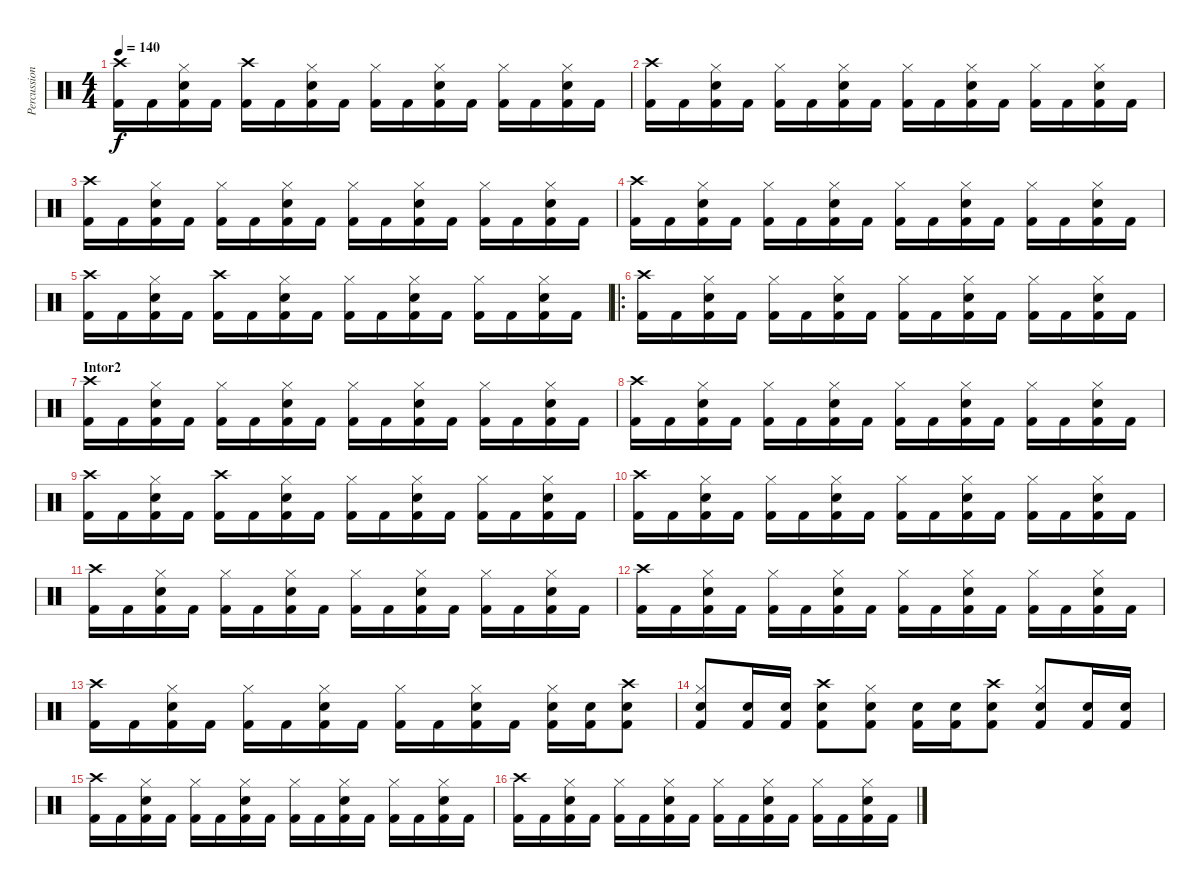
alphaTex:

\track ("Percussion" "Percussion") {instrument percussion}
\staff {score}
\articulation defaults
\ts (4 4)
\tempo 140
\clef neutral
\ks aminor
("Crash high (hit)" "Kick (hit) 2").16{dy f} "Kick (hit) 2".16 ("Hi-Hat (closed)" "Snare (hit) 2" "Kick (hit) 2").16 "Kick (hit) 2".16 ("Crash high (hit)" "Kick (hit) 2").16 "Kick (hit) 2".16 ("Hi-Hat (closed)" "Snare (hit) 2" "Kick (hit) 2").16 "Kick (hit) 2".16 ("Hi-Hat (closed)" "Kick (hit) 2").16 "Kick (hit) 2".16 ("Hi-Hat (closed)" "Snare (hit) 2" "Kick (hit) 2").16 "Kick (hit) 2".16 ("Hi-Hat (closed)" "Kick (hit) 2").16 "Kick (hit) 2".16 ("Hi-Hat (closed)" "Snare (hit) 2" "Kick (hit) 2").16 "Kick (hit) 2".16 |
("Crash high (hit)" "Kick (hit) 2").16 "Kick (hit) 2".16 ("Hi-Hat (closed)" "Snare (hit) 2" "Kick (hit) 2").16 "Kick (hit) 2".16 ("Hi-Hat (closed)" "Kick (hit) 2").16 "Kick (hit) 2".16 ("Hi-Hat (closed)" "Snare (hit) 2" "Kick (hit) 2").16 "Kick (hit) 2".16 ("Hi-Hat (closed)" "Kick (hit) 2").16 "Kick (hit) 2".16 ("Hi-Hat (closed)" "Snare (hit) 2" "Kick (hit) 2").16 "Kick (hit) 2".16 ("Hi-Hat (closed)" "Kick (hit) 2").16 "Kick (hit) 2".16 ("Hi-Hat (closed)" "Snare (hit) 2" "Kick (hit) 2").16 "Kick (hit) 2".16 |
("Crash high (hit)" "Kick (hit) 2").16 "Kick (hit) 2".16 ("Hi-Hat (closed)" "Snare (hit) 2" "Kick (hit) 2").16 "Kick (hit) 2".16 ("Hi-Hat (closed)" "Kick (hit) 2").16 "Kick (hit) 2".16 ("Hi-Hat (closed)" "Snare (hit) 2" "Kick (hit) 2").16 "Kick (hit) 2".16 ("Hi-Hat (closed)" "Kick (hit) 2").16 "Kick (hit) 2".16 ("Hi-Hat (closed)" "Snare (hit) 2" "Kick (hit) 2").16 "Kick (hit) 2".16 ("Hi-Hat (closed)" "Kick (hit) 2").16 "Kick (hit) 2".16 ("Hi-Hat (closed)" "Snare (hit) 2" "Kick (hit) 2").16 "Kick (hit) 2".16 |
("Crash high (hit)" "Kick (hit) 2").16 "Kick (hit) 2".16 ("Hi-Hat (closed)" "Snare (hit) 2" "Kick (hit) 2").16 "Kick (hit) 2".16 ("Hi-Hat (closed)" "Kick (hit) 2").16 "Kick (hit) 2".16 ("Hi-Hat (closed)" "Snare (hit) 2" "Kick (hit) 2").16 "Kick (hit) 2".16 ("Hi-Hat (closed)" "Kick (hit) 2").16 "Kick (hit) 2".16 ("Hi-Hat (closed)" "Snare (hit) 2" "Kick (hit) 2").16 "Kick (hit) 2".16 ("Hi-Hat (closed)" "Kick (hit) 2").16 "Kick (hit) 2".16 ("Hi-Hat (closed)" "Snare (hit) 2" "Kick (hit) 2").16 "Kick (hit) 2".16 |
("Crash high (hit)" "Kick (hit) 2").16 "Kick (hit) 2".16 ("Hi-Hat (closed)" "Snare (hit) 2" "Kick (hit) 2").16 "Kick (hit) 2".16 ("Crash high (hit)" "Kick (hit) 2").16 "Kick (hit) 2".16 ("Hi-Hat (closed)" "Snare (hit) 2" "Kick (hit) 2").16 "Kick (hit) 2".16 ("Hi-Hat (closed)" "Kick (hit) 2").16 "Kick (hit) 2".16 ("Hi-Hat (closed)" "Snare (hit) 2" "Kick (hit) 2").16 "Kick (hit) 2".16 ("Hi-Hat (closed)" "Kick (hit) 2").16 "Kick (hit) 2".16 ("Hi-Hat (closed)" "Snare (hit) 2" "Kick (hit) 2").16 "Kick (hit) 2".16 |
\ro
("Crash high (hit)" "Kick (hit) 2").16 "Kick (hit) 2".16 ("Hi-Hat (closed)" "Snare (hit) 2" "Kick (hit) 2").16 "Kick (hit) 2".16 ("Hi-Hat (closed)" "Kick (hit) 2").16 "Kick (hit) 2".16 ("Hi-Hat (closed)" "Snare (hit) 2" "Kick (hit) 2").16 "Kick (hit) 2".16 ("Hi-Hat (closed)" "Kick (hit) 2").16 "Kick (hit) 2".16 ("Hi-Hat (closed)" "Snare (hit) 2" "Kick (hit) 2").16 "Kick (hit) 2".16 ("Hi-Hat (closed)" "Kick (hit) 2").16 "Kick (hit) 2".16 ("Hi-Hat (closed)" "Snare (hit) 2" "Kick (hit) 2").16 "Kick (hit) 2".16 |
\section ("" "Intor2")
("Crash high (hit)" "Kick (hit) 2").16 "Kick (hit) 2".16 ("Hi-Hat (closed)" "Snare (hit) 2" "Kick (hit) 2").16 "Kick (hit) 2".16 ("Hi-Hat (closed)" "Kick (hit) 2").16 "Kick (hit) 2".16 ("Hi-Hat (closed)" "Snare (hit) 2" "Kick (hit) 2").16 "Kick (hit) 2".16 ("Hi-Hat (closed)" "Kick (hit) 2").16 "Kick (hit) 2".16 ("Hi-Hat (closed)" "Snare (hit) 2" "Kick (hit) 2").16 "Kick (hit) 2".16 ("Hi-Hat (closed)" "Kick (hit) 2").16 "Kick (hit) 2".16 ("Hi-Hat (closed)" "Snare (hit) 2" "Kick (hit) 2").16 "Kick (hit) 2".16 |
("Crash high (hit)" "Kick (hit) 2").16 "Kick (hit) 2".16 ("Hi-Hat (closed)" "Snare (hit) 2" "Kick (hit) 2").16 "Kick (hit) 2".16 ("Hi-Hat (closed)" "Kick (hit) 2").16 "Kick (hit) 2".16 ("Hi-Hat (closed)" "Snare (hit) 2" "Kick (hit) 2").16 "Kick (hit) 2".16 ("Hi-Hat (closed)" "Kick (hit) 2").16 "Kick (hit) 2".16 ("Hi-Hat (closed)" "Snare (hit) 2" "Kick (hit) 2").16 "Kick (hit) 2".16 ("Hi-Hat (closed)" "Kick (hit) 2").16 "Kick (hit) 2".16 ("Hi-Hat (closed)" "Snare (hit) 2" "Kick (hit) 2").16 "Kick (hit) 2".16 |
("Crash high (hit)" "Kick (hit) 2").16 "Kick (hit) 2".16 ("Hi-Hat (closed)" "Snare (hit) 2" "Kick (hit) 2").16 "Kick (hit) 2".16 ("Crash high (hit)" "Kick (hit) 2").16 "Kick (hit) 2".16 ("Hi-Hat (closed)" "Snare (hit) 2" "Kick (hit) 2").16 "Kick (hit) 2".16 ("Hi-Hat (closed)" "Kick (hit) 2").16 "Kick (hit) 2".16 ("Hi-Hat (closed)" "Snare (hit) 2" "Kick (hit) 2").16 "Kick (hit) 2".16 ("Hi-Hat (closed)" "Kick (hit) 2").16 "Kick (hit) 2".16 ("Hi-Hat (closed)" "Snare (hit) 2" "Kick (hit) 2").16 "Kick (hit) 2".16 |
("Crash high (hit)" "Kick (hit) 2").16 "Kick (hit) 2".16 ("Hi-Hat (closed)" "Snare (hit) 2" "Kick (hit) 2").16 "Kick (hit) 2".16 ("Hi-Hat (closed)" "Kick (hit) 2").16 "Kick (hit) 2".16 ("Hi-Hat (closed)" "Snare (hit) 2" "Kick (hit) 2").16 "Kick (hit) 2".16 ("Hi-Hat (closed)" "Kick (hit) 2").16 "Kick (hit) 2".16 ("Hi-Hat (closed)" "Snare (hit) 2" "Kick (hit) 2").16 "Kick (hit) 2".16 ("Hi-Hat (closed)" "Kick (hit) 2").16 "Kick (hit) 2".16 ("Hi-Hat (closed)" "Snare (hit) 2" "Kick (hit) 2").16 "Kick (hit) 2".16 |
("Crash high (hit)" "Kick (hit) 2").16 "Kick (hit) 2".16 ("Hi-Hat (closed)" "Snare (hit) 2" "Kick (hit) 2").16 "Kick (hit) 2".16 ("Hi-Hat (closed)" "Kick (hit) 2").16 "Kick (hit) 2".16 ("Hi-Hat (closed)" "Snare (hit) 2" "Kick (hit) 2").16 "Kick (hit) 2".16 ("Hi-Hat (closed)" "Kick (hit) 2").16 "Kick (hit) 2".16 ("Hi-Hat (closed)" "Snare (hit) 2" "Kick (hit) 2").16 "Kick (hit) 2".16 ("Hi-Hat (closed)" "Kick (hit) 2").16 "Kick (hit) 2".16 ("Hi-Hat (closed)" "Snare (hit) 2" "Kick (hit) 2").16 "Kick (hit) 2".16 |
("Crash high (hit)" "Kick (hit) 2").16 "Kick (hit) 2".16 ("Hi-Hat (closed)" "Snare (hit) 2" "Kick (hit) 2").16 "Kick (hit) 2".16 ("Hi-Hat (closed)" "Kick (hit) 2").16 "Kick (hit) 2".16 ("Hi-Hat (closed)" "Snare (hit) 2" "Kick (hit) 2").16 "Kick (hit) 2".16 ("Hi-Hat (closed)" "Kick (hit) 2").16 "Kick (hit) 2".16 ("Hi-Hat (closed)" "Snare (hit) 2" "Kick (hit) 2").16 "Kick (hit) 2".16 ("Hi-Hat (closed)" "Kick (hit) 2").16 "Kick (hit) 2".16 ("Hi-Hat (closed)" "Snare (hit) 2" "Kick (hit) 2").16 "Kick (hit) 2".16 |
("Crash high (hit)" "Kick (hit) 2").16 "Kick (hit) 2".16 ("Hi-Hat (closed)" "Snare (hit) 2" "Kick (hit) 2").16 "Kick (hit) 2".16 ("Hi-Hat (closed)" "Kick (hit) 2").16 "Kick (hit) 2".16 ("Hi-Hat (closed)" "Snare (hit) 2" "Kick (hit) 2").16 "Kick (hit) 2".16 ("Hi-Hat (closed)" "Kick (hit) 2").16 "Kick (hit) 2".16 ("Hi-Hat (closed)" "Snare (hit) 2" "Kick (hit) 2").16 "Kick (hit) 2".16 ("Hi-Hat (closed)" "Snare (hit) 2" "Kick (hit) 2").16 ("Snare (hit) 2" "Kick (hit) 2").16 ("Crash high (hit)" "Snare (hit) 2" "Kick (hit) 2").8 |
("Hi-Hat (closed)" "Snare (hit) 2" "Kick (hit) 2").8 ("Snare (hit) 2" "Kick (hit) 2").16 ("Snare (hit) 2" "Kick (hit) 2").16 ("Crash high (hit)" "Snare (hit) 2" "Kick (hit) 2").8 ("Hi-Hat (closed)" "Snare (hit) 2" "Kick (hit) 2").8 ("Snare (hit) 2" "Kick (hit) 2").16 ("Snare (hit) 2" "Kick (hit) 2").16 ("Crash high (hit)" "Snare (hit) 2" "Kick (hit) 2").8 ("Hi-Hat (closed)" "Snare (hit) 2" "Kick (hit) 2").8 ("Snare (hit) 2" "Kick (hit) 2").16 ("Snare (hit) 2" "Kick (hit) 2").16 |
("Crash high (hit)" "Kick (hit) 2").16 "Kick (hit) 2".16 ("Hi-Hat (closed)" "Snare (hit) 2" "Kick (hit) 2").16 "Kick (hit) 2".16 ("Hi-Hat (closed)" "Kick (hit) 2").16 "Kick (hit) 2".16 ("Hi-Hat (closed)" "Snare (hit) 2" "Kick (hit) 2").16 "Kick (hit) 2".16 ("Hi-Hat (closed)" "Kick (hit) 2").16 "Kick (hit) 2".16 ("Hi-Hat (closed)" "Snare (hit) 2" "Kick (hit) 2").16 "Kick (hit) 2".16 ("Hi-Hat (closed)" "Kick (hit) 2").16 "Kick (hit) 2".16 ("Hi-Hat (closed)" "Snare (hit) 2" "Kick (hit) 2").16 "Kick (hit) 2".16 |
("Crash high (hit)" "Kick (hit) 2").16 "Kick (hit) 2".16 ("Hi-Hat (closed)" "Snare (hit) 2" "Kick (hit) 2").16 "Kick (hit) 2".16 ("Hi-Hat (closed)" "Kick (hit) 2").16 "Kick (hit) 2".16 ("Hi-Hat (closed)" "Snare (hit) 2" "Kick (hit) 2").16 "Kick (hit) 2".16 ("Hi-Hat (closed)" "Kick (hit) 2").16 "Kick (hit) 2".16 ("Hi-Hat (closed)" "Snare (hit) 2" "Kick (hit) 2").16 "Kick (hit) 2".16 ("Hi-Hat (closed)" "Kick (hit) 2").16 "Kick (hit) 2".16 ("Hi-Hat (closed)" "Snare (hit) 2" "Kick (hit) 2").16 "Kick (hit) 2".16
